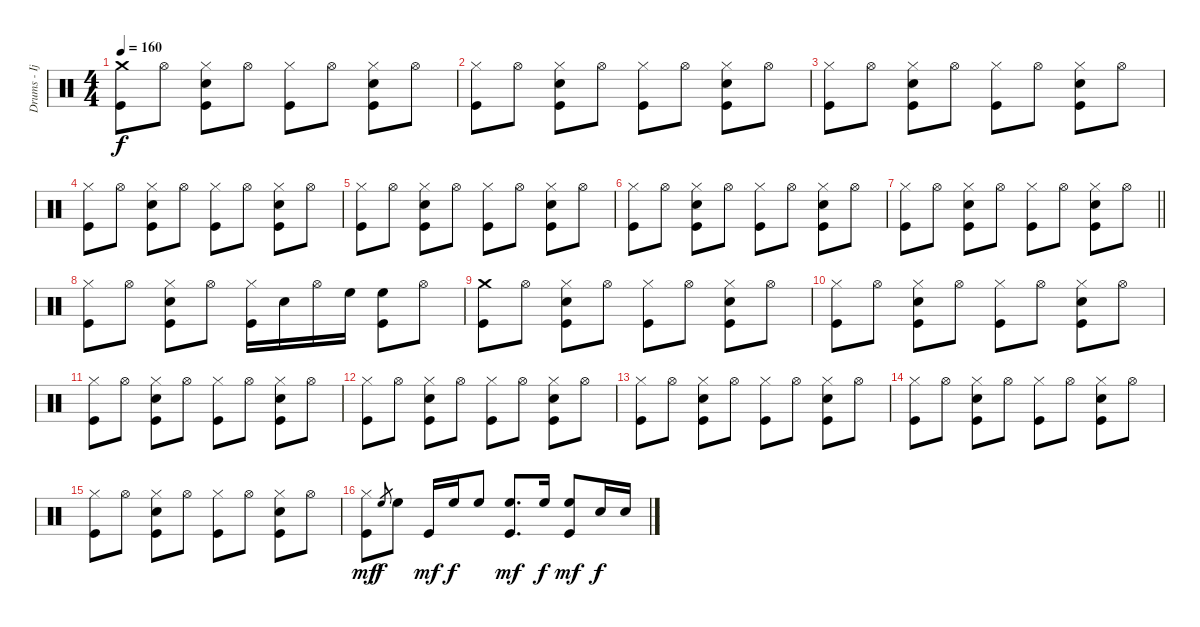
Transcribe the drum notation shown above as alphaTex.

\track ("Drums - Ijichi" "Drums - Ij") {instrument percussion}
\staff {score}
\articulation defaults
\ts (4 4)
\tempo 160
\clef neutral
\ks c
("Crash medium (hit)" "Kick (hit)").8{dy f} "Hi-Hat (open)".8 ("Hi-Hat (closed)" "Electric Snare (hit)" "Kick (hit)").8 "Hi-Hat (open)".8 ("Hi-Hat (closed)" "Kick (hit)").8 "Hi-Hat (open)".8 ("Hi-Hat (closed)" "Electric Snare (hit)" "Kick (hit)").8 "Hi-Hat (open)".8 |
("Hi-Hat (closed)" "Kick (hit)").8 "Hi-Hat (open)".8 ("Hi-Hat (closed)" "Electric Snare (hit)" "Kick (hit)").8 "Hi-Hat (open)".8 ("Hi-Hat (closed)" "Kick (hit)").8 "Hi-Hat (open)".8 ("Hi-Hat (closed)" "Electric Snare (hit)" "Kick (hit)").8 "Hi-Hat (open)".8 |
("Hi-Hat (closed)" "Kick (hit)").8 "Hi-Hat (open)".8 ("Hi-Hat (closed)" "Electric Snare (hit)" "Kick (hit)").8 "Hi-Hat (open)".8 ("Hi-Hat (closed)" "Kick (hit)").8 "Hi-Hat (open)".8 ("Hi-Hat (closed)" "Electric Snare (hit)" "Kick (hit)").8 "Hi-Hat (open)".8 |
("Hi-Hat (closed)" "Kick (hit)").8 "Hi-Hat (open)".8 ("Hi-Hat (closed)" "Electric Snare (hit)" "Kick (hit)").8 "Hi-Hat (open)".8 ("Hi-Hat (closed)" "Kick (hit)").8 "Hi-Hat (open)".8 ("Hi-Hat (closed)" "Electric Snare (hit)" "Kick (hit)").8 "Hi-Hat (open)".8 |
("Hi-Hat (closed)" "Kick (hit)").8 "Hi-Hat (open)".8 ("Hi-Hat (closed)" "Electric Snare (hit)" "Kick (hit)").8 "Hi-Hat (open)".8 ("Hi-Hat (closed)" "Kick (hit)").8 "Hi-Hat (open)".8 ("Hi-Hat (closed)" "Electric Snare (hit)" "Kick (hit)").8 "Hi-Hat (open)".8 |
("Hi-Hat (closed)" "Kick (hit)").8 "Hi-Hat (open)".8 ("Hi-Hat (closed)" "Electric Snare (hit)" "Kick (hit)").8 "Hi-Hat (open)".8 ("Hi-Hat (closed)" "Kick (hit)").8 "Hi-Hat (open)".8 ("Hi-Hat (closed)" "Electric Snare (hit)" "Kick (hit)").8 "Hi-Hat (open)".8 |
\barLineRight lightlight
("Hi-Hat (closed)" "Kick (hit)").8 "Hi-Hat (open)".8 ("Hi-Hat (closed)" "Electric Snare (hit)" "Kick (hit)").8 "Hi-Hat (open)".8 ("Hi-Hat (closed)" "Kick (hit)").8 "Hi-Hat (open)".8 ("Hi-Hat (closed)" "Electric Snare (hit)" "Kick (hit)").8 "Hi-Hat (open)".8 |
("Hi-Hat (closed)" "Kick (hit)").8 "Hi-Hat (open)".8 ("Hi-Hat (closed)" "Electric Snare (hit)" "Kick (hit)").8 "Hi-Hat (open)".8 ("Hi-Hat (closed)" "Kick (hit)").16 "Electric Snare (hit)".16 "Hi-Hat (open)".16 "High Floor Tom (hit)".16 ("High Floor Tom (hit)" "Kick (hit)").8 "Hi-Hat (open)".8 |
("Crash medium (hit)" "Kick (hit)").8 "Hi-Hat (open)".8 ("Hi-Hat (closed)" "Electric Snare (hit)" "Kick (hit)").8 "Hi-Hat (open)".8 ("Hi-Hat (closed)" "Kick (hit)").8 "Hi-Hat (open)".8 ("Hi-Hat (closed)" "Electric Snare (hit)" "Kick (hit)").8 "Hi-Hat (open)".8 |
("Hi-Hat (closed)" "Kick (hit)").8 "Hi-Hat (open)".8 ("Hi-Hat (closed)" "Electric Snare (hit)" "Kick (hit)").8 "Hi-Hat (open)".8 ("Hi-Hat (closed)" "Kick (hit)").8 "Hi-Hat (open)".8 ("Hi-Hat (closed)" "Electric Snare (hit)" "Kick (hit)").8 "Hi-Hat (open)".8 |
("Hi-Hat (closed)" "Kick (hit)").8 "Hi-Hat (open)".8 ("Hi-Hat (closed)" "Electric Snare (hit)" "Kick (hit)").8 "Hi-Hat (open)".8 ("Hi-Hat (closed)" "Kick (hit)").8 "Hi-Hat (open)".8 ("Hi-Hat (closed)" "Electric Snare (hit)" "Kick (hit)").8 "Hi-Hat (open)".8 |
("Hi-Hat (closed)" "Kick (hit)").8 "Hi-Hat (open)".8 ("Hi-Hat (closed)" "Electric Snare (hit)" "Kick (hit)").8 "Hi-Hat (open)".8 ("Hi-Hat (closed)" "Kick (hit)").8 "Hi-Hat (open)".8 ("Hi-Hat (closed)" "Electric Snare (hit)" "Kick (hit)").8 "Hi-Hat (open)".8 |
("Hi-Hat (closed)" "Kick (hit)").8 "Hi-Hat (open)".8 ("Hi-Hat (closed)" "Electric Snare (hit)" "Kick (hit)").8 "Hi-Hat (open)".8 ("Hi-Hat (closed)" "Kick (hit)").8 "Hi-Hat (open)".8 ("Hi-Hat (closed)" "Electric Snare (hit)" "Kick (hit)").8 "Hi-Hat (open)".8 |
("Hi-Hat (closed)" "Kick (hit)").8 "Hi-Hat (open)".8 ("Hi-Hat (closed)" "Electric Snare (hit)" "Kick (hit)").8 "Hi-Hat (open)".8 ("Hi-Hat (closed)" "Kick (hit)").8 "Hi-Hat (open)".8 ("Hi-Hat (closed)" "Electric Snare (hit)" "Kick (hit)").8 "Hi-Hat (open)".8 |
("Hi-Hat (closed)" "Kick (hit)").8 "Hi-Hat (open)".8 ("Hi-Hat (closed)" "Electric Snare (hit)" "Kick (hit)").8 "Hi-Hat (open)".8 ("Hi-Hat (closed)" "Kick (hit)").8 "Hi-Hat (open)".8 ("Hi-Hat (closed)" "Electric Snare (hit)" "Kick (hit)").8 "Hi-Hat (open)".8 |
("Hi-Hat (closed)" "Kick (hit)").8{dy mf} "High Floor Tom (hit)".8{gr dy f} "High Floor Tom (hit)".8 "Kick (hit)".16{dy mf} "High Floor Tom (hit)".16{dy f} "High Floor Tom (hit)".8 ("High Floor Tom (hit)" "Kick (hit)").8{d dy mf} "High Floor Tom (hit)".16{dy f} ("High Floor Tom (hit)" "Kick (hit)").8{dy mf} "Electric Snare (hit)".16{dy f} "Electric Snare (hit)".16
